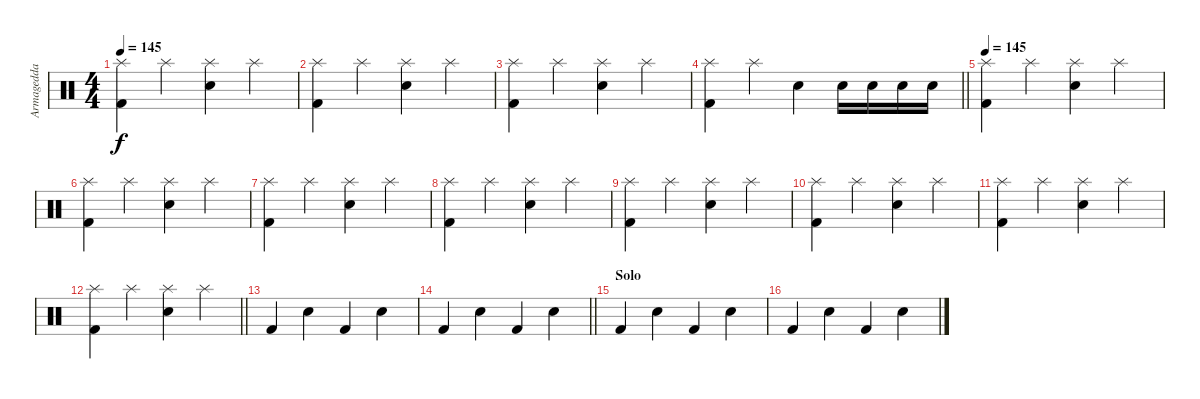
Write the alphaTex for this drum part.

\track ("Armagedda" "Armagedda") {instrument percussion}
\staff {score}
\articulation defaults
\ts (4 4)
\tempo 145
\clef neutral
\ks c
("Splash (hit)" "Kick (hit) 2").4{dy f} "Splash (hit)".4 ("Splash (hit)" "Snare (hit) 2").4 "Splash (hit)".4 |
("Splash (hit)" "Kick (hit) 2").4 "Splash (hit)".4 ("Splash (hit)" "Snare (hit) 2").4 "Splash (hit)".4 |
("Splash (hit)" "Kick (hit) 2").4 "Splash (hit)".4 ("Splash (hit)" "Snare (hit) 2").4 "Splash (hit)".4 |
\barLineRight lightlight
("Splash (hit)" "Kick (hit) 2").4 "Splash (hit)".4 "Snare (hit) 2".4 "Snare (hit) 2".16 "Snare (hit) 2".16 "Snare (hit) 2".16 "Snare (hit) 2".16 |
\tempo 145
("Splash (hit)" "Kick (hit) 2").4 "Splash (hit)".4 ("Splash (hit)" "Snare (hit) 2").4 "Splash (hit)".4 |
("Splash (hit)" "Kick (hit) 2").4 "Splash (hit)".4 ("Splash (hit)" "Snare (hit) 2").4 "Splash (hit)".4 |
("Splash (hit)" "Kick (hit) 2").4 "Splash (hit)".4 ("Splash (hit)" "Snare (hit) 2").4 "Splash (hit)".4 |
("Splash (hit)" "Kick (hit) 2").4 "Splash (hit)".4 ("Splash (hit)" "Snare (hit) 2").4 "Splash (hit)".4 |
("Splash (hit)" "Kick (hit) 2").4 "Splash (hit)".4 ("Splash (hit)" "Snare (hit) 2").4 "Splash (hit)".4 |
("Splash (hit)" "Kick (hit) 2").4 "Splash (hit)".4 ("Splash (hit)" "Snare (hit) 2").4 "Splash (hit)".4 |
("Splash (hit)" "Kick (hit) 2").4 "Splash (hit)".4 ("Splash (hit)" "Snare (hit) 2").4 "Splash (hit)".4 |
\barLineRight lightlight
("Splash (hit)" "Kick (hit) 2").4 "Splash (hit)".4 ("Splash (hit)" "Snare (hit) 2").4 "Splash (hit)".4 |
"Kick (hit) 2".4 "Snare (hit) 2".4 "Kick (hit) 2".4 "Snare (hit) 2".4 |
\barLineRight lightlight "Kick (hit) 2".4 "Snare (hit) 2".4 "Kick (hit) 2".4 "Snare (hit) 2".4
|
\section ("" "Solo")
"Kick (hit) 2".4 "Snare (hit) 2".4 "Kick (hit) 2".4 "Snare (hit) 2".4 |
"Kick (hit) 2".4 "Snare (hit) 2".4 "Kick (hit) 2".4 "Snare (hit) 2".4
